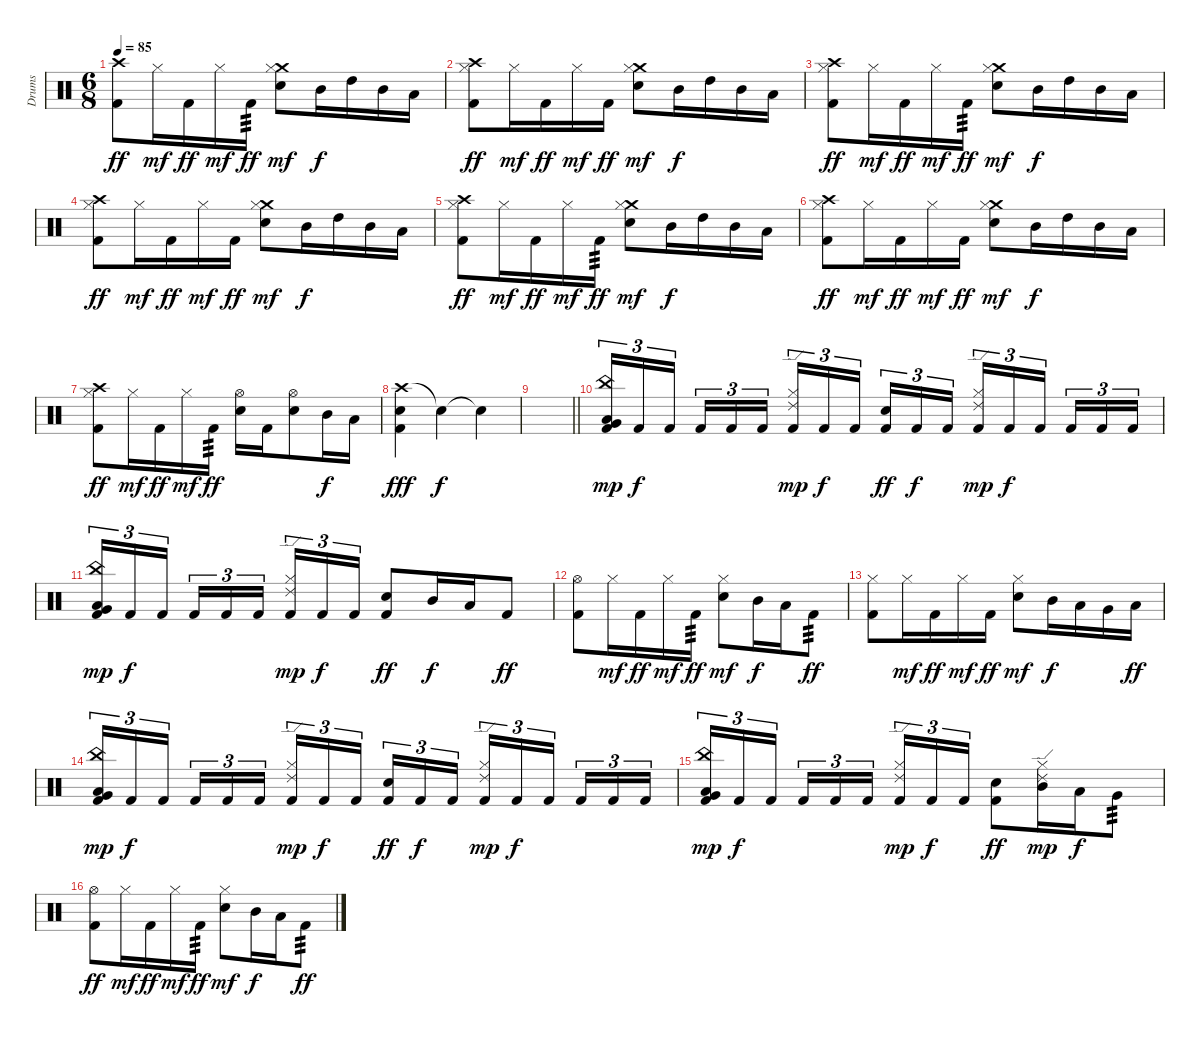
\track ("Drums" "Drums") {instrument percussion}
\staff {score}
\articulation defaults
\ts (6 8)
\tempo 85
\clef neutral
\ks c
("Crash high (hit)" "Kick (hit) 2").8{dy ff} "Hi-Hat (closed)".16{dy mf} "Kick (hit) 2".16{dy ff} "Hi-Hat (closed)".16{dy mf} "Kick (hit) 2".16{tp 3 dy ff} ("Crash medium (hit)" "Hi-Hat (closed)" "Snare (hit) 2").8{dy mf} "Mid Tom (hit)".16{dy f} "High Tom (hit)".16 "Mid Tom (hit)".16 "Low Tom (hit)".16 |
("Crash high (hit)" "Hi-Hat (closed)" "Kick (hit) 2").8{dy ff} "Hi-Hat (closed)".16{dy mf} "Kick (hit) 2".16{dy ff} "Hi-Hat (closed)".16{dy mf} "Kick (hit) 2".16{dy ff} ("Crash medium (hit)" "Hi-Hat (closed)" "Snare (hit) 2").8{dy mf} "Mid Tom (hit)".16{dy f} "High Tom (hit)".16 "Mid Tom (hit)".16 "Low Tom (hit)".16 |
("Crash high (hit)" "Hi-Hat (closed)" "Kick (hit) 2").8{dy ff} "Hi-Hat (closed)".16{dy mf} "Kick (hit) 2".16{dy ff} "Hi-Hat (closed)".16{dy mf} "Kick (hit) 2".16{tp 3 dy ff} ("Crash medium (hit)" "Hi-Hat (closed)" "Snare (hit) 2").8{dy mf} "Mid Tom (hit)".16{dy f} "High Tom (hit)".16 "Mid Tom (hit)".16 "Low Tom (hit)".16 |
("Crash high (hit)" "Hi-Hat (closed)" "Kick (hit) 2").8{dy ff} "Hi-Hat (closed)".16{dy mf} "Kick (hit) 2".16{dy ff} "Hi-Hat (closed)".16{dy mf} "Kick (hit) 2".16{dy ff} ("Crash medium (hit)" "Hi-Hat (closed)" "Snare (hit) 2").8{dy mf} "Mid Tom (hit)".16{dy f} "High Tom (hit)".16 "Mid Tom (hit)".16 "Low Tom (hit)".16 |
("Crash high (hit)" "Hi-Hat (closed)" "Kick (hit) 2").8{dy ff} "Hi-Hat (closed)".16{dy mf} "Kick (hit) 2".16{dy ff} "Hi-Hat (closed)".16{dy mf} "Kick (hit) 2".16{tp 3 dy ff} ("Crash medium (hit)" "Hi-Hat (closed)" "Snare (hit) 2").8{dy mf} "Mid Tom (hit)".16{dy f} "High Tom (hit)".16 "Mid Tom (hit)".16 "Low Tom (hit)".16 |
("Crash high (hit)" "Hi-Hat (closed)" "Kick (hit) 2").8{dy ff} "Hi-Hat (closed)".16{dy mf} "Kick (hit) 2".16{dy ff} "Hi-Hat (closed)".16{dy mf} "Kick (hit) 2".16{dy ff} ("Crash medium (hit)" "Hi-Hat (closed)" "Snare (hit) 2").8{dy mf} "Mid Tom (hit)".16{dy f} "High Tom (hit)".16 "Mid Tom (hit)".16 "Low Tom (hit)".16 |
("Crash high (hit)" "Hi-Hat (closed)" "Kick (hit) 2").8{dy ff} "Hi-Hat (closed)".16{dy mf} "Kick (hit) 2".16{dy ff} "Hi-Hat (closed)".16{dy mf} "Kick (hit) 2".16{tp 3 dy ff} ("Hi-Hat (open)" "Snare (hit) 2").16 "Kick (hit) 2".16 ("Hi-Hat (open)" "Snare (hit) 2").8 "Mid Tom (hit)".16{dy f} "Low Tom (hit)".16 |
("Crash high (hit)" "Snare (hit) 2" "Kick (hit) 2").4{dy fff} "Snare (hit)"{t}.4{dy f} "Snare (hit)"{t}.4 |
\barLineRight lightlight
|
\section ("" "")
("China (hit)" "Low Tom (hit)" "Very Low Tom (hit)" "Kick (hit) 2").16{tu (3 2) dy mp} "Kick (hit) 2".16{tu (3 2) dy f} "Kick (hit) 2".16{tu (3 2) beam splitsecondary} "Kick (hit) 2".16{tu (3 2)} "Kick (hit) 2".16{tu (3 2)} "Kick (hit) 2".16{tu (3 2) beam splitsecondary} ("Ride (edge) 2" "Hi-Hat (closed)" "Kick (hit) 2").16{tu (3 2) dy mp} "Kick (hit) 2".16{tu (3 2) dy f} "Kick (hit) 2".16{tu (3 2)} ("Snare (hit) 2" "Kick (hit) 2").16{tu (3 2) dy ff} "Kick (hit) 2".16{tu (3 2) dy f} "Kick (hit) 2".16{tu (3 2) beam splitsecondary} ("Ride (edge) 2" "Hi-Hat (closed)" "Kick (hit) 2").16{tu (3 2) dy mp} "Kick (hit) 2".16{tu (3 2) dy f} "Kick (hit) 2".16{tu (3 2) beam splitsecondary} "Kick (hit) 2".16{tu (3 2)} "Kick (hit) 2".16{tu (3 2)} "Kick (hit) 2".16{tu (3 2)} |
("China (hit)" "Low Tom (hit)" "Very Low Tom (hit)" "Kick (hit) 2").16{tu (3 2) dy mp} "Kick (hit) 2".16{tu (3 2) dy f} "Kick (hit) 2".16{tu (3 2) beam splitsecondary} "Kick (hit) 2".16{tu (3 2)} "Kick (hit) 2".16{tu (3 2)} "Kick (hit) 2".16{tu (3 2) beam splitsecondary} ("Ride (edge) 2" "Hi-Hat (closed)" "Kick (hit) 2").16{tu (3 2) dy mp} "Kick (hit) 2".16{tu (3 2) dy f} "Kick (hit) 2".16{tu (3 2)} ("Snare (hit) 2" "Kick (hit) 2").8{dy ff} "Mid Tom (hit)".16{dy f} "Low Tom (hit)".16 "Kick (hit) 2".8{dy ff} |
("Hi-Hat (open)" "Kick (hit) 2").8 "Hi-Hat (closed)".16{dy mf} "Kick (hit) 2".16{dy ff} "Hi-Hat (closed)".16{dy mf} "Kick (hit) 2".16{tp 3 dy ff} ("Hi-Hat (closed)" "Snare (hit) 2").8{dy mf} "Mid Tom (hit)".16{dy f} "Low Tom (hit)".16 "Kick (hit) 2".8{tp 3 dy ff} |
("Hi-Hat (closed)" "Kick (hit) 2").8 "Hi-Hat (closed)".16{dy mf} "Kick (hit) 2".16{dy ff} "Hi-Hat (closed)".16{dy mf} "Kick (hit) 2".16{dy ff} ("Hi-Hat (closed)" "Snare (hit) 2").8{dy mf} "Mid Tom (hit)".16{dy f} "Low Tom (hit)".16 "Very Low Tom (hit)".16 "Low Floor Tom (hit)".16{dy ff} |
("China (hit)" "Low Tom (hit)" "Very Low Tom (hit)" "Kick (hit) 2").16{tu (3 2) dy mp} "Kick (hit) 2".16{tu (3 2) dy f} "Kick (hit) 2".16{tu (3 2) beam splitsecondary} "Kick (hit) 2".16{tu (3 2)} "Kick (hit) 2".16{tu (3 2)} "Kick (hit) 2".16{tu (3 2) beam splitsecondary} ("Ride (edge) 2" "Hi-Hat (closed)" "Kick (hit) 2").16{tu (3 2) dy mp} "Kick (hit) 2".16{tu (3 2) dy f} "Kick (hit) 2".16{tu (3 2)} ("Snare (hit) 2" "Kick (hit) 2").16{tu (3 2) dy ff} "Kick (hit) 2".16{tu (3 2) dy f} "Kick (hit) 2".16{tu (3 2) beam splitsecondary} ("Ride (edge) 2" "Hi-Hat (closed)" "Kick (hit) 2").16{tu (3 2) dy mp} "Kick (hit) 2".16{tu (3 2) dy f} "Kick (hit) 2".16{tu (3 2) beam splitsecondary} "Kick (hit) 2".16{tu (3 2)} "Kick (hit) 2".16{tu (3 2)} "Kick (hit) 2".16{tu (3 2)} |
("China (hit)" "Low Tom (hit)" "Very Low Tom (hit)" "Kick (hit) 2").16{tu (3 2) dy mp} "Kick (hit) 2".16{tu (3 2) dy f} "Kick (hit) 2".16{tu (3 2) beam splitsecondary} "Kick (hit) 2".16{tu (3 2)} "Kick (hit) 2".16{tu (3 2)} "Kick (hit) 2".16{tu (3 2) beam splitsecondary} ("Ride (edge) 2" "Hi-Hat (closed)" "Kick (hit) 2").16{tu (3 2) dy mp} "Kick (hit) 2".16{tu (3 2) dy f} "Kick (hit) 2".16{tu (3 2)} ("Snare (hit) 2" "Kick (hit) 2").8{dy ff} ("Ride (edge) 2" "Hi-Hat (closed)" "Mid Tom (hit)").16{dy mp} "Low Tom (hit)".16{dy f} "Very Low Tom (hit)".8{tp 3} |
("Hi-Hat (open)" "Kick (hit) 2").8{dy ff} "Hi-Hat (closed)".16{dy mf} "Kick (hit) 2".16{dy ff} "Hi-Hat (closed)".16{dy mf} "Kick (hit) 2".16{tp 3 dy ff} ("Hi-Hat (closed)" "Snare (hit) 2").8{dy mf} "Mid Tom (hit)".16{dy f} "Low Tom (hit)".16 "Kick (hit) 2".8{tp 3 dy ff}
